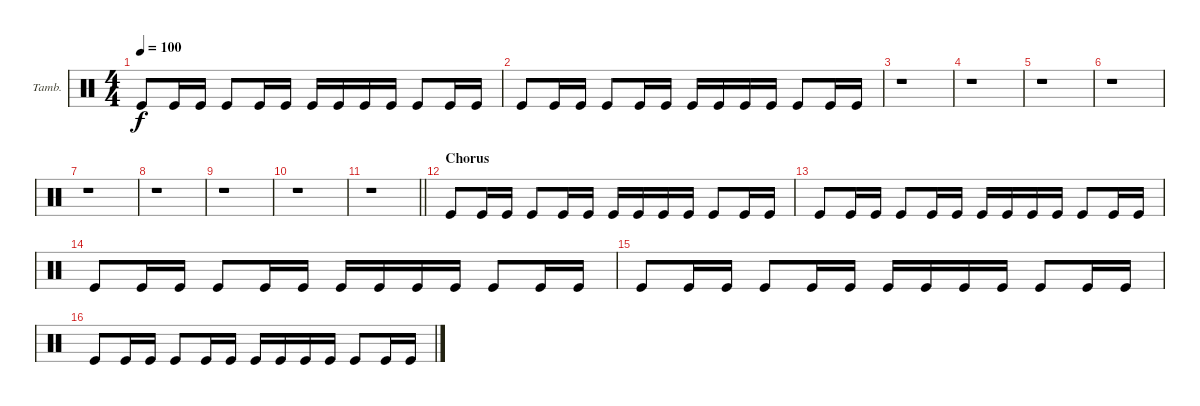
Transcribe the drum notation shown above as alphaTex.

\bracketExtendMode groupsimilarinstruments
\firstSystemTrackNameOrientation horizontal
\otherSystemsTrackNameOrientation horizontal
\track ("Tambourine" "Tamb.") {instrument percussion}
\staff {score}
\articulation defaults
\ts (4 4)
\tempo 100
\clef neutral
\ks c "Kick (hit)".8{dy f} "Kick (hit)".16 "Kick (hit)".16 "Kick (hit)".8 "Kick (hit)".16 "Kick (hit)".16 "Kick (hit)".16 "Kick (hit)".16 "Kick (hit)".16 "Kick (hit)".16 "Kick (hit)".8 "Kick (hit)".16 "Kick (hit)".16
|
"Kick (hit)".8 "Kick (hit)".16 "Kick (hit)".16 "Kick (hit)".8 "Kick (hit)".16 "Kick (hit)".16 "Kick (hit)".16 "Kick (hit)".16 "Kick (hit)".16 "Kick (hit)".16 "Kick (hit)".8 "Kick (hit)".16 "Kick (hit)".16 |
r.1 |
r.1 |
r.1 |
r.1 |
r.1 |
r.1 |
r.1 |
r.1 |
\barLineRight lightlight
r.1 |
\section ("" "Chorus")
"Kick (hit)".8 "Kick (hit)".16 "Kick (hit)".16 "Kick (hit)".8 "Kick (hit)".16 "Kick (hit)".16 "Kick (hit)".16 "Kick (hit)".16 "Kick (hit)".16 "Kick (hit)".16 "Kick (hit)".8 "Kick (hit)".16 "Kick (hit)".16 |
"Kick (hit)".8 "Kick (hit)".16 "Kick (hit)".16 "Kick (hit)".8 "Kick (hit)".16 "Kick (hit)".16 "Kick (hit)".16 "Kick (hit)".16 "Kick (hit)".16 "Kick (hit)".16 "Kick (hit)".8 "Kick (hit)".16 "Kick (hit)".16 |
"Kick (hit)".8 "Kick (hit)".16 "Kick (hit)".16 "Kick (hit)".8 "Kick (hit)".16 "Kick (hit)".16 "Kick (hit)".16 "Kick (hit)".16 "Kick (hit)".16 "Kick (hit)".16 "Kick (hit)".8 "Kick (hit)".16 "Kick (hit)".16 |
"Kick (hit)".8 "Kick (hit)".16 "Kick (hit)".16 "Kick (hit)".8 "Kick (hit)".16 "Kick (hit)".16 "Kick (hit)".16 "Kick (hit)".16 "Kick (hit)".16 "Kick (hit)".16 "Kick (hit)".8 "Kick (hit)".16 "Kick (hit)".16 |
"Kick (hit)".8 "Kick (hit)".16 "Kick (hit)".16 "Kick (hit)".8 "Kick (hit)".16 "Kick (hit)".16 "Kick (hit)".16 "Kick (hit)".16 "Kick (hit)".16 "Kick (hit)".16 "Kick (hit)".8 "Kick (hit)".16 "Kick (hit)".16
